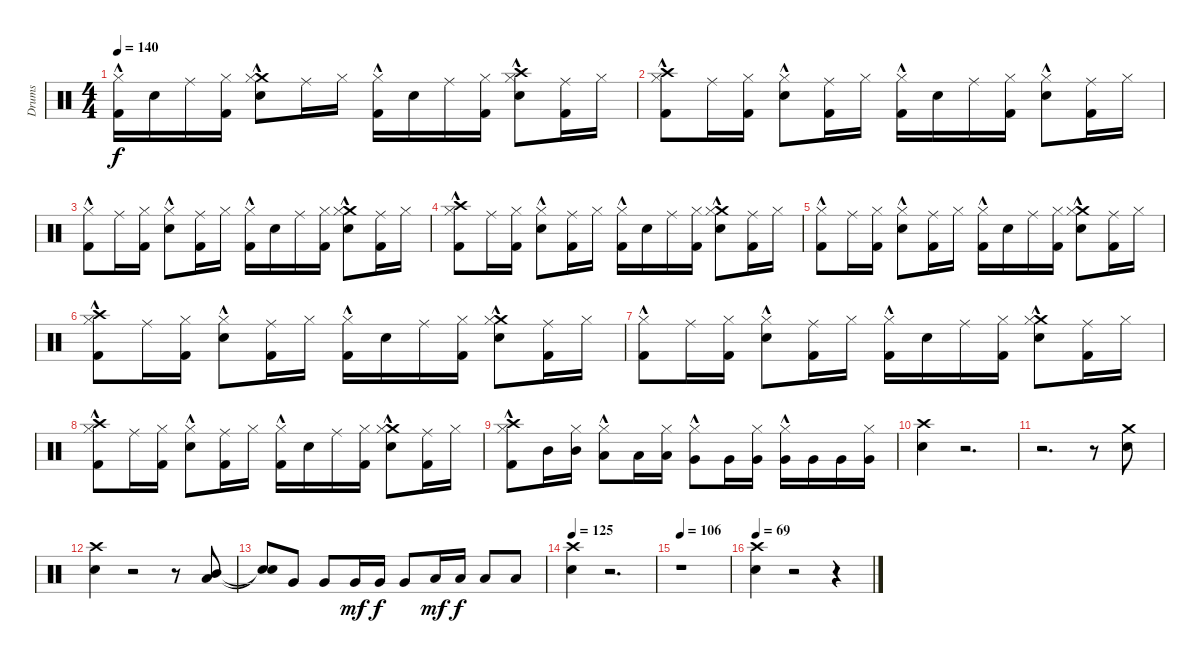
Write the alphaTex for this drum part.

\track ("Drums" "Drums") {instrument percussion}
\staff {score}
\articulation defaults
\ts (4 4)
\tempo 140
\clef neutral
\ks c
("Hi-Hat (closed)"{hac} "Kick (hit) 2").16{dy f} "Electric Snare (hit)".16 "Ride (middle)".16 ("Hi-Hat (closed)" "Kick (hit) 2").16 ("Electric Snare (hit)" "Crash medium (hit)" "Hi-Hat (closed)"{hac}).8 "Ride (middle)".16 "Hi-Hat (closed)".16 ("Hi-Hat (closed)"{hac} "Kick (hit) 2").16 "Electric Snare (hit)".16 "Ride (middle)".16 ("Kick (hit) 2" "Hi-Hat (closed)").16 ("Electric Snare (hit)" "Hi-Hat (closed)"{hac} "Crash high (hit)").8 ("Kick (hit) 2" "Ride (middle)").16 "Hi-Hat (closed)".16 |
("Hi-Hat (closed)"{hac} "Crash high (hit)" "Kick (hit) 2"{hac}).8 "Ride (middle)".16 ("Hi-Hat (closed)" "Kick (hit) 2").16 ("Electric Snare (hit)" "Hi-Hat (closed)"{hac}).8 ("Ride (middle)" "Kick (hit) 2").16 "Hi-Hat (closed)".16 ("Kick (hit) 2" "Hi-Hat (closed)"{hac}).16 "Electric Snare (hit)".16 "Ride (middle)".16 ("Kick (hit) 2" "Hi-Hat (closed)").16 ("Electric Snare (hit)" "Hi-Hat (closed)"{hac}).8 ("Ride (middle)" "Kick (hit) 2").16 "Hi-Hat (closed)".16 |
("Hi-Hat (closed)"{hac} "Kick (hit) 2"{hac}).8 "Ride (middle)".16 ("Kick (hit) 2" "Hi-Hat (closed)").16 ("Electric Snare (hit)" "Hi-Hat (closed)"{hac}).8 ("Kick (hit) 2" "Ride (middle)").16 "Hi-Hat (closed)".16 ("Hi-Hat (closed)"{hac} "Kick (hit) 2").16 "Electric Snare (hit)".16 "Ride (middle)".16 ("Kick (hit) 2" "Hi-Hat (closed)").16 ("Crash medium (hit)" "Hi-Hat (closed)"{hac} "Electric Snare (hit)").8 ("Kick (hit) 2" "Ride (middle)").16 "Hi-Hat (closed)".16 |
("Crash high (hit)" "Hi-Hat (closed)"{hac} "Kick (hit) 2"{hac}).8 "Ride (middle)".16 ("Hi-Hat (closed)" "Kick (hit) 2").16 ("Electric Snare (hit)" "Hi-Hat (closed)"{hac}).8 ("Ride (middle)" "Kick (hit) 2").16 "Hi-Hat (closed)".16 ("Kick (hit) 2" "Hi-Hat (closed)"{hac}).16 "Electric Snare (hit)".16 "Ride (middle)".16 ("Kick (hit) 2" "Hi-Hat (closed)").16 ("Crash medium (hit)" "Electric Snare (hit)" "Hi-Hat (closed)"{hac}).8 ("Ride (middle)" "Kick (hit) 2").16 "Hi-Hat (closed)".16 |
("Hi-Hat (closed)"{hac} "Kick (hit) 2"{hac}).8 "Ride (middle)".16 ("Kick (hit) 2" "Hi-Hat (closed)").16 ("Electric Snare (hit)" "Hi-Hat (closed)"{hac}).8 ("Kick (hit) 2" "Ride (middle)").16 "Hi-Hat (closed)".16 ("Hi-Hat (closed)"{hac} "Kick (hit) 2").16 "Electric Snare (hit)".16 "Ride (middle)".16 ("Kick (hit) 2" "Hi-Hat (closed)").16 ("Crash medium (hit)" "Hi-Hat (closed)"{hac} "Electric Snare (hit)").8 ("Kick (hit) 2" "Ride (middle)").16 "Hi-Hat (closed)".16 |
("Hi-Hat (closed)"{hac} "Crash high (hit)" "Kick (hit) 2"{hac}).8 "Ride (middle)".16 ("Hi-Hat (closed)" "Kick (hit) 2").16 ("Electric Snare (hit)" "Hi-Hat (closed)"{hac}).8 ("Ride (middle)" "Kick (hit) 2").16 "Hi-Hat (closed)".16 ("Kick (hit) 2" "Hi-Hat (closed)"{hac}).16 "Electric Snare (hit)".16 "Ride (middle)".16 ("Kick (hit) 2" "Hi-Hat (closed)").16 ("Crash medium (hit)" "Electric Snare (hit)" "Hi-Hat (closed)"{hac}).8 ("Ride (middle)" "Kick (hit) 2").16 "Hi-Hat (closed)".16 |
("Hi-Hat (closed)"{hac} "Kick (hit) 2"{hac}).8 "Ride (middle)".16 ("Kick (hit) 2" "Hi-Hat (closed)").16 ("Electric Snare (hit)" "Hi-Hat (closed)"{hac}).8 ("Kick (hit) 2" "Ride (middle)").16 "Hi-Hat (closed)".16 ("Hi-Hat (closed)"{hac} "Kick (hit) 2").16 "Electric Snare (hit)".16 "Ride (middle)".16 ("Kick (hit) 2" "Hi-Hat (closed)").16 ("Crash medium (hit)" "Hi-Hat (closed)"{hac} "Electric Snare (hit)").8 ("Kick (hit) 2" "Ride (middle)").16 "Hi-Hat (closed)".16 |
("Crash high (hit)" "Hi-Hat (closed)"{hac} "Kick (hit) 2"{hac}).8 "Ride (middle)".16 ("Kick (hit) 2" "Hi-Hat (closed)").16 ("Electric Snare (hit)" "Hi-Hat (closed)"{hac}).8 ("Kick (hit) 2" "Ride (middle)").16 "Hi-Hat (closed)".16 ("Hi-Hat (closed)"{hac} "Kick (hit) 2").16 "Electric Snare (hit)".16 "Ride (middle)".16 ("Kick (hit) 2" "Hi-Hat (closed)").16 ("Crash medium (hit)" "Hi-Hat (closed)"{hac} "Electric Snare (hit)").8 ("Kick (hit) 2" "Ride (middle)").16 "Hi-Hat (closed)".16 |
("Crash high (hit)" "Hi-Hat (closed)"{hac} "Kick (hit) 2").8 "Mid Tom (hit)".16 ("Mid Tom (hit)" "Hi-Hat (closed)").16 ("Low Tom (hit)" "Hi-Hat (closed)"{hac}).8 "Low Tom (hit)".16 ("Low Tom (hit)" "Hi-Hat (closed)").16 ("Very Low Tom (hit)" "Hi-Hat (closed)"{hac}).8 "Very Low Tom (hit)".16 ("Very Low Tom (hit)" "Hi-Hat (closed)").16 ("Very Low Tom (hit)" "Hi-Hat (closed)"{hac}).16 "Very Low Tom (hit)".16 "Very Low Tom (hit)".16 ("Very Low Tom (hit)" "Hi-Hat (closed)").16 |
("Crash high (hit)" "Electric Snare (hit)").4 r.2{d} |
r.2{d} r.8 ("Electric Snare (hit)" "Crash medium (hit)").8 |
("Crash high (hit)" "Electric Snare (hit)").4 r.2 r.8 ("Mid Tom (hit)" "Low Tom (hit)").8 |
("Snare (hit)"{t} "Snare (hit)"{t}).8 "Very Low Tom (hit)".8 "Very Low Tom (hit)".8 "Very Low Tom (hit)".16{dy mf} "Very Low Tom (hit)".16{dy f} "Very Low Tom (hit)".8 "Low Floor Tom (hit)".16{dy mf} "Low Floor Tom (hit)".16{dy f} "Low Floor Tom (hit)".8 "Low Floor Tom (hit)".8 |
\tempo 125
("Crash high (hit)" "Electric Snare (hit)").4 r.2{d} |
\tempo 106
r.1 |
\tempo 69
("Crash high (hit)" "Electric Snare (hit)").4 r.2 r.4
